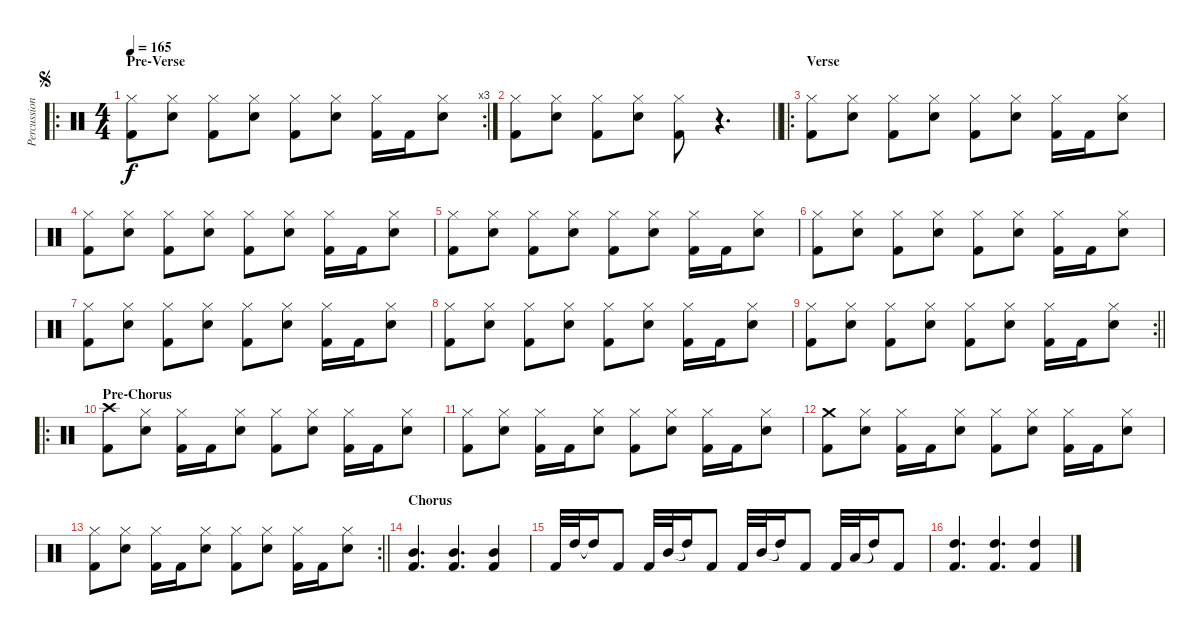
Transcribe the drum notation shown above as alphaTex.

\track ("Percussion" "Percussion") {instrument percussion}
\staff {score}
\articulation defaults
\ro
\rc 3
\ts (4 4)
\section ("" "Pre-Verse")
\jump segno
\tempo 165
\clef neutral
\ks c
("Hi-Hat (closed)" "Kick (hit) 2").8{dy f} ("Hi-Hat (closed)" "Electric Snare (hit)").8 ("Hi-Hat (closed)" "Kick (hit) 2").8 ("Hi-Hat (closed)" "Electric Snare (hit)").8 ("Hi-Hat (closed)" "Kick (hit) 2").8 ("Hi-Hat (closed)" "Electric Snare (hit)").8 ("Hi-Hat (closed)" "Kick (hit) 2").16 "Kick (hit) 2".16 ("Hi-Hat (closed)" "Electric Snare (hit)").8 |
\barLineRight lightlight
("Hi-Hat (closed)" "Kick (hit) 2").8 ("Hi-Hat (closed)" "Electric Snare (hit)").8 ("Hi-Hat (closed)" "Kick (hit) 2").8 ("Hi-Hat (closed)" "Electric Snare (hit)").8 ("Hi-Hat (closed)" "Kick (hit) 2").8 r.4{d} |
\ro
\section ("" "Verse")
("Hi-Hat (closed)" "Kick (hit) 2").8 ("Hi-Hat (closed)" "Electric Snare (hit)").8 ("Hi-Hat (closed)" "Kick (hit) 2").8 ("Hi-Hat (closed)" "Electric Snare (hit)").8 ("Hi-Hat (closed)" "Kick (hit) 2").8 ("Hi-Hat (closed)" "Electric Snare (hit)").8 ("Hi-Hat (closed)" "Kick (hit) 2").16 "Kick (hit) 2".16 ("Hi-Hat (closed)" "Electric Snare (hit)").8 |
("Hi-Hat (closed)" "Kick (hit) 2").8 ("Hi-Hat (closed)" "Electric Snare (hit)").8 ("Hi-Hat (closed)" "Kick (hit) 2").8 ("Hi-Hat (closed)" "Electric Snare (hit)").8 ("Hi-Hat (closed)" "Kick (hit) 2").8 ("Hi-Hat (closed)" "Electric Snare (hit)").8 ("Hi-Hat (closed)" "Kick (hit) 2").16 "Kick (hit) 2".16 ("Hi-Hat (closed)" "Electric Snare (hit)").8 |
("Hi-Hat (closed)" "Kick (hit) 2").8 ("Hi-Hat (closed)" "Electric Snare (hit)").8 ("Hi-Hat (closed)" "Kick (hit) 2").8 ("Hi-Hat (closed)" "Electric Snare (hit)").8 ("Hi-Hat (closed)" "Kick (hit) 2").8 ("Hi-Hat (closed)" "Electric Snare (hit)").8 ("Hi-Hat (closed)" "Kick (hit) 2").16 "Kick (hit) 2".16 ("Hi-Hat (closed)" "Electric Snare (hit)").8 |
("Hi-Hat (closed)" "Kick (hit) 2").8 ("Hi-Hat (closed)" "Electric Snare (hit)").8 ("Hi-Hat (closed)" "Kick (hit) 2").8 ("Hi-Hat (closed)" "Electric Snare (hit)").8 ("Hi-Hat (closed)" "Kick (hit) 2").8 ("Hi-Hat (closed)" "Electric Snare (hit)").8 ("Hi-Hat (closed)" "Kick (hit) 2").16 "Kick (hit) 2".16 ("Hi-Hat (closed)" "Electric Snare (hit)").8 |
("Hi-Hat (closed)" "Kick (hit) 2").8 ("Hi-Hat (closed)" "Electric Snare (hit)").8 ("Hi-Hat (closed)" "Kick (hit) 2").8 ("Hi-Hat (closed)" "Electric Snare (hit)").8 ("Hi-Hat (closed)" "Kick (hit) 2").8 ("Hi-Hat (closed)" "Electric Snare (hit)").8 ("Hi-Hat (closed)" "Kick (hit) 2").16 "Kick (hit) 2".16 ("Hi-Hat (closed)" "Electric Snare (hit)").8 |
("Hi-Hat (closed)" "Kick (hit) 2").8 ("Hi-Hat (closed)" "Electric Snare (hit)").8 ("Hi-Hat (closed)" "Kick (hit) 2").8 ("Hi-Hat (closed)" "Electric Snare (hit)").8 ("Hi-Hat (closed)" "Kick (hit) 2").8 ("Hi-Hat (closed)" "Electric Snare (hit)").8 ("Hi-Hat (closed)" "Kick (hit) 2").16 "Kick (hit) 2".16 ("Hi-Hat (closed)" "Electric Snare (hit)").8 |
\rc 2
\barLineRight lightlight
("Hi-Hat (closed)" "Kick (hit) 2").8 ("Hi-Hat (closed)" "Electric Snare (hit)").8 ("Hi-Hat (closed)" "Kick (hit) 2").8 ("Hi-Hat (closed)" "Electric Snare (hit)").8 ("Hi-Hat (closed)" "Kick (hit) 2").8 ("Hi-Hat (closed)" "Electric Snare (hit)").8 ("Hi-Hat (closed)" "Kick (hit) 2").16 "Kick (hit) 2".16 ("Hi-Hat (closed)" "Electric Snare (hit)").8 |
\ro
\section ("" "Pre-Chorus")
("Crash high (hit)" "Kick (hit) 2").8 ("Hi-Hat (closed)" "Electric Snare (hit)").8 ("Hi-Hat (closed)" "Kick (hit) 2").16 "Kick (hit) 2".16 ("Hi-Hat (closed)" "Electric Snare (hit)").8 ("Hi-Hat (closed)" "Kick (hit) 2").8 ("Hi-Hat (closed)" "Electric Snare (hit)").8 ("Hi-Hat (closed)" "Kick (hit) 2").16 "Kick (hit) 2".16 ("Hi-Hat (closed)" "Electric Snare (hit)").8 |
("Hi-Hat (closed)" "Kick (hit) 2").8 ("Hi-Hat (closed)" "Electric Snare (hit)").8 ("Hi-Hat (closed)" "Kick (hit) 2").16 "Kick (hit) 2".16 ("Hi-Hat (closed)" "Electric Snare (hit)").8 ("Hi-Hat (closed)" "Kick (hit) 2").8 ("Hi-Hat (closed)" "Electric Snare (hit)").8 ("Hi-Hat (closed)" "Kick (hit) 2").16 "Kick (hit) 2".16 ("Hi-Hat (closed)" "Electric Snare (hit)").8 |
("Crash medium (hit)" "Kick (hit) 2").8 ("Hi-Hat (closed)" "Electric Snare (hit)").8 ("Hi-Hat (closed)" "Kick (hit) 2").16 "Kick (hit) 2".16 ("Hi-Hat (closed)" "Electric Snare (hit)").8 ("Hi-Hat (closed)" "Kick (hit) 2").8 ("Hi-Hat (closed)" "Electric Snare (hit)").8 ("Hi-Hat (closed)" "Kick (hit) 2").16 "Kick (hit) 2".16 ("Hi-Hat (closed)" "Electric Snare (hit)").8 |
\rc 2
\barLineRight lightlight
("Hi-Hat (closed)" "Kick (hit) 2").8 ("Hi-Hat (closed)" "Electric Snare (hit)").8 ("Hi-Hat (closed)" "Kick (hit) 2").16 "Kick (hit) 2".16 ("Hi-Hat (closed)" "Electric Snare (hit)").8 ("Hi-Hat (closed)" "Kick (hit) 2").8 ("Hi-Hat (closed)" "Electric Snare (hit)").8 ("Hi-Hat (closed)" "Kick (hit) 2").16 "Kick (hit) 2".16 ("Hi-Hat (closed)" "Electric Snare (hit)").8 |
\section ("" "Chorus")
("Mid Tom (hit)" "Kick (hit) 2").4{d} ("Mid Tom (hit)" "Kick (hit) 2").4{d} ("Mid Tom (hit)" "Kick (hit) 2").4 |
"Kick (hit) 2".32 "High Tom (hit)".32 "High Tom (hit)"{t}.16 "Kick (hit) 2".8 "Kick (hit) 2".32 "Mid Tom (hit)".32 "High Tom (hit)"{t}.16 "Kick (hit) 2".8 "Kick (hit) 2".32 "Mid Tom (hit)".32 "High Tom (hit)"{t}.16 "Kick (hit) 2".8 "Kick (hit) 2".32 "Low Tom (hit)".32 "High Tom (hit)"{t}.16 "Kick (hit) 2".8 |
("High Tom (hit)" "Kick (hit) 2").4{d} ("High Tom (hit)" "Kick (hit) 2").4{d} ("High Tom (hit)" "Kick (hit) 2").4
